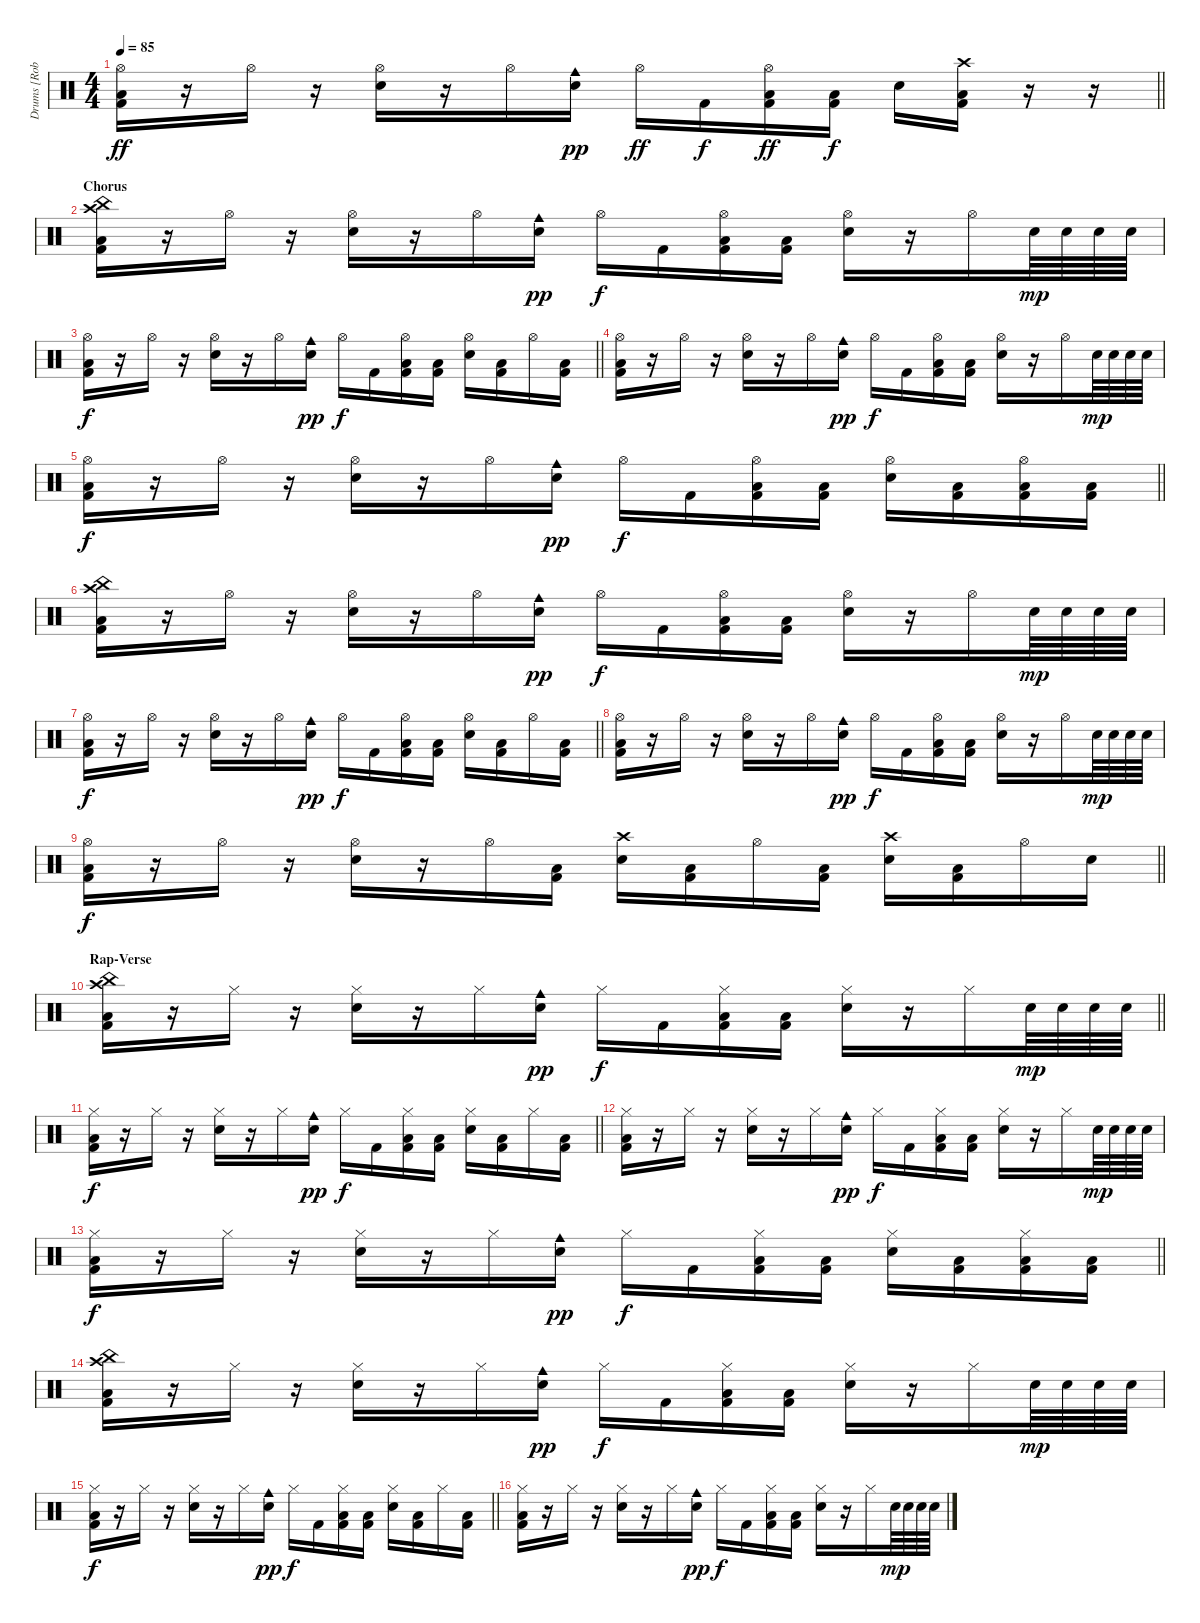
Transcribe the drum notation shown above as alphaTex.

\track ("Drums [Rob Bourdon]" "Drums [Rob") {instrument percussion}
\staff {score}
\articulation defaults
\ts (4 4)
\tempo 85
\clef neutral
\barLineRight lightlight
\ks c
("Hi-Hat (open)" "Low Floor Tom (hit)" "Kick (hit) 2").16{dy ff} r.16 "Hi-Hat (open)".16 r.16 ("Hi-Hat (open)" "Snare (hit) 2").16 r.16 "Hi-Hat (open)".16 ("Snare (hit) 2" "Cowbell medium (hit)").16{dy pp} "Hi-Hat (open)".16{dy ff} "Kick (hit) 2".16{dy f} ("Hi-Hat (open)" "Low Floor Tom (hit)" "Kick (hit) 2").16{dy ff} ("Low Floor Tom (hit)" "Kick (hit) 2").16{dy f} "Snare (hit) 2".16 ("Crash high (hit)" "Low Floor Tom (hit)" "Kick (hit) 2").16 r.16 r.16 |
\section ("" "Chorus")
("China (hit)" "Crash high (hit)" "Low Floor Tom (hit)" "Kick (hit) 2").16 r.16 "Hi-Hat (open)".16 r.16 ("Hi-Hat (open)" "Snare (hit) 2").16 r.16 "Hi-Hat (open)".16 ("Snare (hit) 2" "Cowbell medium (hit)").16{dy pp} "Hi-Hat (open)".16{dy f} "Kick (hit) 2".16 ("Hi-Hat (open)" "Low Floor Tom (hit)" "Kick (hit) 2").16 ("Low Floor Tom (hit)" "Kick (hit) 2").16 ("Hi-Hat (open)" "Snare (hit) 2").16 r.16 "Hi-Hat (open)".16 "Snare (hit) 2".64{dy mp} "Snare (hit) 2".64 "Snare (hit) 2".64 "Snare (hit) 2".64 |
\barLineRight lightlight
("Hi-Hat (open)" "Low Floor Tom (hit)" "Kick (hit) 2").16{dy f} r.16 "Hi-Hat (open)".16 r.16 ("Hi-Hat (open)" "Snare (hit) 2").16 r.16 "Hi-Hat (open)".16 ("Snare (hit) 2" "Cowbell medium (hit)").16{dy pp} "Hi-Hat (open)".16{dy f} "Kick (hit) 2".16 ("Hi-Hat (open)" "Low Floor Tom (hit)" "Kick (hit) 2").16 ("Low Floor Tom (hit)" "Kick (hit) 2").16 ("Hi-Hat (open)" "Snare (hit) 2").16 ("Low Floor Tom (hit)" "Kick (hit) 2").16 "Hi-Hat (open)".16 ("Low Floor Tom (hit)" "Kick (hit) 2").16 |
("Hi-Hat (open)" "Low Floor Tom (hit)" "Kick (hit) 2").16 r.16 "Hi-Hat (open)".16 r.16 ("Hi-Hat (open)" "Snare (hit) 2").16 r.16 "Hi-Hat (open)".16 ("Snare (hit) 2" "Cowbell medium (hit)").16{dy pp} "Hi-Hat (open)".16{dy f} "Kick (hit) 2".16 ("Hi-Hat (open)" "Low Floor Tom (hit)" "Kick (hit) 2").16 ("Low Floor Tom (hit)" "Kick (hit) 2").16 ("Hi-Hat (open)" "Snare (hit) 2").16 r.16 "Hi-Hat (open)".16 "Snare (hit) 2".64{dy mp} "Snare (hit) 2".64 "Snare (hit) 2".64 "Snare (hit) 2".64 |
\barLineRight lightlight
("Hi-Hat (open)" "Low Floor Tom (hit)" "Kick (hit) 2").16{dy f} r.16 "Hi-Hat (open)".16 r.16 ("Hi-Hat (open)" "Snare (hit) 2").16 r.16 "Hi-Hat (open)".16 ("Snare (hit) 2" "Cowbell medium (hit)").16{dy pp} "Hi-Hat (open)".16{dy f} "Kick (hit) 2".16 ("Hi-Hat (open)" "Low Floor Tom (hit)" "Kick (hit) 2").16 ("Low Floor Tom (hit)" "Kick (hit) 2").16 ("Hi-Hat (open)" "Snare (hit) 2").16 ("Low Floor Tom (hit)" "Kick (hit) 2").16 ("Hi-Hat (open)" "Low Floor Tom (hit)" "Kick (hit) 2").16 ("Low Floor Tom (hit)" "Kick (hit) 2").16 |
("China (hit)" "Crash high (hit)" "Low Floor Tom (hit)" "Kick (hit) 2").16 r.16 "Hi-Hat (open)".16 r.16 ("Hi-Hat (open)" "Snare (hit) 2").16 r.16 "Hi-Hat (open)".16 ("Snare (hit) 2" "Cowbell medium (hit)").16{dy pp} "Hi-Hat (open)".16{dy f} "Kick (hit) 2".16 ("Hi-Hat (open)" "Low Floor Tom (hit)" "Kick (hit) 2").16 ("Low Floor Tom (hit)" "Kick (hit) 2").16 ("Hi-Hat (open)" "Snare (hit) 2").16 r.16 "Hi-Hat (open)".16 "Snare (hit) 2".64{dy mp} "Snare (hit) 2".64 "Snare (hit) 2".64 "Snare (hit) 2".64 |
\barLineRight lightlight
("Hi-Hat (open)" "Low Floor Tom (hit)" "Kick (hit) 2").16{dy f} r.16 "Hi-Hat (open)".16 r.16 ("Hi-Hat (open)" "Snare (hit) 2").16 r.16 "Hi-Hat (open)".16 ("Snare (hit) 2" "Cowbell medium (hit)").16{dy pp} "Hi-Hat (open)".16{dy f} "Kick (hit) 2".16 ("Hi-Hat (open)" "Low Floor Tom (hit)" "Kick (hit) 2").16 ("Low Floor Tom (hit)" "Kick (hit) 2").16 ("Hi-Hat (open)" "Snare (hit) 2").16 ("Low Floor Tom (hit)" "Kick (hit) 2").16 "Hi-Hat (open)".16 ("Low Floor Tom (hit)" "Kick (hit) 2").16 |
("Hi-Hat (open)" "Low Floor Tom (hit)" "Kick (hit) 2").16 r.16 "Hi-Hat (open)".16 r.16 ("Hi-Hat (open)" "Snare (hit) 2").16 r.16 "Hi-Hat (open)".16 ("Snare (hit) 2" "Cowbell medium (hit)").16{dy pp} "Hi-Hat (open)".16{dy f} "Kick (hit) 2".16 ("Hi-Hat (open)" "Low Floor Tom (hit)" "Kick (hit) 2").16 ("Low Floor Tom (hit)" "Kick (hit) 2").16 ("Hi-Hat (open)" "Snare (hit) 2").16 r.16 "Hi-Hat (open)".16 "Snare (hit) 2".64{dy mp} "Snare (hit) 2".64 "Snare (hit) 2".64 "Snare (hit) 2".64 |
\barLineRight lightlight
("Hi-Hat (open)" "Low Floor Tom (hit)" "Kick (hit) 2").16{dy f} r.16 "Hi-Hat (open)".16 r.16 ("Hi-Hat (open)" "Snare (hit) 2").16 r.16 "Hi-Hat (open)".16 ("Low Floor Tom (hit)" "Kick (hit) 2").16 ("Crash high (hit)" "Snare (hit) 2").16 ("Low Floor Tom (hit)" "Kick (hit) 2").16 "Hi-Hat (open)".16 ("Low Floor Tom (hit)" "Kick (hit) 2").16 ("Crash high (hit)" "Snare (hit) 2").16 ("Low Floor Tom (hit)" "Kick (hit) 2").16 "Hi-Hat (open)".16 "Snare (hit) 2".16 |
\section ("" "Rap-Verse")
\barLineRight lightlight
("China (hit)" "Crash high (hit)" "Low Floor Tom (hit)" "Kick (hit) 2").16 r.16 "Hi-Hat (closed)".16 r.16 ("Hi-Hat (closed)" "Snare (hit) 2").16 r.16 "Hi-Hat (closed)".16 ("Snare (hit) 2" "Cowbell medium (hit)").16{dy pp} "Hi-Hat (closed)".16{dy f} "Kick (hit) 2".16 ("Hi-Hat (closed)" "Low Floor Tom (hit)" "Kick (hit) 2").16 ("Low Floor Tom (hit)" "Kick (hit) 2").16 ("Hi-Hat (closed)" "Snare (hit) 2").16 r.16 "Hi-Hat (closed)".16 "Snare (hit) 2".64{dy mp} "Snare (hit) 2".64 "Snare (hit) 2".64 "Snare (hit) 2".64 |
\barLineRight lightlight
("Hi-Hat (closed)" "Low Floor Tom (hit)" "Kick (hit) 2").16{dy f} r.16 "Hi-Hat (closed)".16 r.16 ("Hi-Hat (closed)" "Snare (hit) 2").16 r.16 "Hi-Hat (closed)".16 ("Snare (hit) 2" "Cowbell medium (hit)").16{dy pp} "Hi-Hat (closed)".16{dy f} "Kick (hit) 2".16 ("Hi-Hat (closed)" "Low Floor Tom (hit)" "Kick (hit) 2").16 ("Low Floor Tom (hit)" "Kick (hit) 2").16 ("Hi-Hat (closed)" "Snare (hit) 2").16 ("Low Floor Tom (hit)" "Kick (hit) 2").16 "Hi-Hat (closed)".16 ("Low Floor Tom (hit)" "Kick (hit) 2").16 |
("Hi-Hat (closed)" "Low Floor Tom (hit)" "Kick (hit) 2").16 r.16 "Hi-Hat (closed)".16 r.16 ("Hi-Hat (closed)" "Snare (hit) 2").16 r.16 "Hi-Hat (closed)".16 ("Snare (hit) 2" "Cowbell medium (hit)").16{dy pp} "Hi-Hat (closed)".16{dy f} "Kick (hit) 2".16 ("Hi-Hat (closed)" "Low Floor Tom (hit)" "Kick (hit) 2").16 ("Low Floor Tom (hit)" "Kick (hit) 2").16 ("Hi-Hat (closed)" "Snare (hit) 2").16 r.16 "Hi-Hat (closed)".16 "Snare (hit) 2".64{dy mp} "Snare (hit) 2".64 "Snare (hit) 2".64 "Snare (hit) 2".64 |
\barLineRight lightlight
("Hi-Hat (closed)" "Low Floor Tom (hit)" "Kick (hit) 2").16{dy f} r.16 "Hi-Hat (closed)".16 r.16 ("Hi-Hat (closed)" "Snare (hit) 2").16 r.16 "Hi-Hat (closed)".16 ("Snare (hit) 2" "Cowbell medium (hit)").16{dy pp} "Hi-Hat (closed)".16{dy f} "Kick (hit) 2".16 ("Hi-Hat (closed)" "Low Floor Tom (hit)" "Kick (hit) 2").16 ("Low Floor Tom (hit)" "Kick (hit) 2").16 ("Hi-Hat (closed)" "Snare (hit) 2").16 ("Low Floor Tom (hit)" "Kick (hit) 2").16 ("Hi-Hat (closed)" "Low Floor Tom (hit)" "Kick (hit) 2").16 ("Low Floor Tom (hit)" "Kick (hit) 2").16 |
("China (hit)" "Crash high (hit)" "Low Floor Tom (hit)" "Kick (hit) 2").16 r.16 "Hi-Hat (closed)".16 r.16 ("Hi-Hat (closed)" "Snare (hit) 2").16 r.16 "Hi-Hat (closed)".16 ("Snare (hit) 2" "Cowbell medium (hit)").16{dy pp} "Hi-Hat (closed)".16{dy f} "Kick (hit) 2".16 ("Hi-Hat (closed)" "Low Floor Tom (hit)" "Kick (hit) 2").16 ("Low Floor Tom (hit)" "Kick (hit) 2").16 ("Hi-Hat (closed)" "Snare (hit) 2").16 r.16 "Hi-Hat (closed)".16 "Snare (hit) 2".64{dy mp} "Snare (hit) 2".64 "Snare (hit) 2".64 "Snare (hit) 2".64 |
\barLineRight lightlight
("Hi-Hat (closed)" "Low Floor Tom (hit)" "Kick (hit) 2").16{dy f} r.16 "Hi-Hat (closed)".16 r.16 ("Hi-Hat (closed)" "Snare (hit) 2").16 r.16 "Hi-Hat (closed)".16 ("Snare (hit) 2" "Cowbell medium (hit)").16{dy pp} "Hi-Hat (closed)".16{dy f} "Kick (hit) 2".16 ("Hi-Hat (closed)" "Low Floor Tom (hit)" "Kick (hit) 2").16 ("Low Floor Tom (hit)" "Kick (hit) 2").16 ("Hi-Hat (closed)" "Snare (hit) 2").16 ("Low Floor Tom (hit)" "Kick (hit) 2").16 "Hi-Hat (closed)".16 ("Low Floor Tom (hit)" "Kick (hit) 2").16 |
("Hi-Hat (closed)" "Low Floor Tom (hit)" "Kick (hit) 2").16 r.16 "Hi-Hat (closed)".16 r.16 ("Hi-Hat (closed)" "Snare (hit) 2").16 r.16 "Hi-Hat (closed)".16 ("Snare (hit) 2" "Cowbell medium (hit)").16{dy pp} "Hi-Hat (closed)".16{dy f} "Kick (hit) 2".16 ("Hi-Hat (closed)" "Low Floor Tom (hit)" "Kick (hit) 2").16 ("Low Floor Tom (hit)" "Kick (hit) 2").16 ("Hi-Hat (closed)" "Snare (hit) 2").16 r.16 "Hi-Hat (closed)".16 "Snare (hit) 2".64{dy mp} "Snare (hit) 2".64 "Snare (hit) 2".64 "Snare (hit) 2".64
